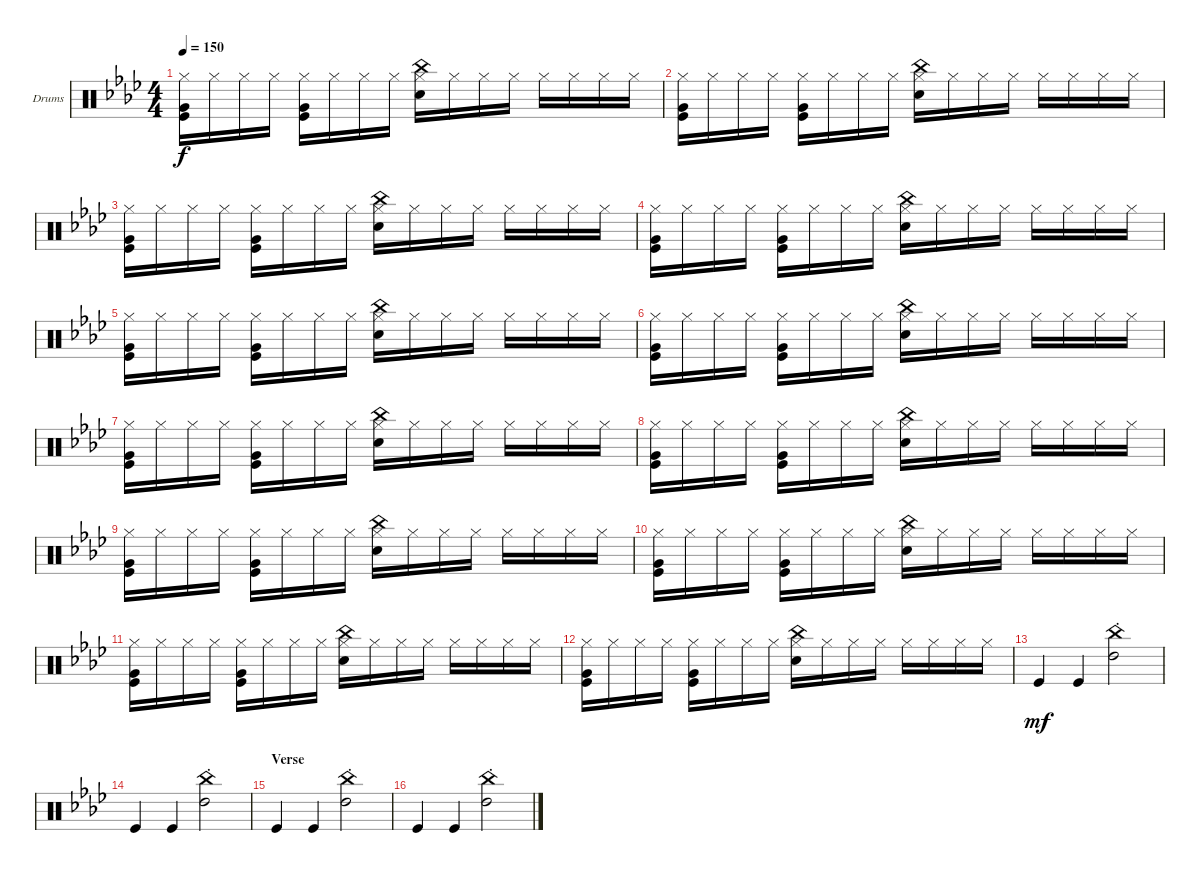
\bracketExtendMode groupsimilarinstruments
\firstSystemTrackNameOrientation horizontal
\otherSystemsTrackNameOrientation horizontal
\track ("Drums" "Drums") {instrument percussion}
\staff {score}
\articulation defaults
\ts (4 4)
\tempo 150
\clef neutral
\ks ab
("Kick (hit)" "Very Low Tom (hit)" "Hi-Hat (closed)").16{dy f} "Hi-Hat (closed)".16 "Hi-Hat (closed)".16 "Hi-Hat (closed)".16 ("Kick (hit)" "Very Low Tom (hit)" "Hi-Hat (closed)").16 "Hi-Hat (closed)".16 "Hi-Hat (closed)".16 "Hi-Hat (closed)".16 ("Hi-Hat (closed)" "Snare (hit) 2" "China (hit)").16 "Hi-Hat (closed)".16 "Hi-Hat (closed)".16 "Hi-Hat (closed)".16 "Hi-Hat (closed)".16 "Hi-Hat (closed)".16 "Hi-Hat (closed)".16 "Hi-Hat (closed)".16 |
("Kick (hit)" "Very Low Tom (hit)" "Hi-Hat (closed)").16 "Hi-Hat (closed)".16 "Hi-Hat (closed)".16 "Hi-Hat (closed)".16 ("Kick (hit)" "Very Low Tom (hit)" "Hi-Hat (closed)").16 "Hi-Hat (closed)".16 "Hi-Hat (closed)".16 "Hi-Hat (closed)".16 ("Hi-Hat (closed)" "Snare (hit) 2" "China (hit)").16 "Hi-Hat (closed)".16 "Hi-Hat (closed)".16 "Hi-Hat (closed)".16 "Hi-Hat (closed)".16 "Hi-Hat (closed)".16 "Hi-Hat (closed)".16 "Hi-Hat (closed)".16 |
("Kick (hit)" "Very Low Tom (hit)" "Hi-Hat (closed)").16 "Hi-Hat (closed)".16 "Hi-Hat (closed)".16 "Hi-Hat (closed)".16 ("Kick (hit)" "Very Low Tom (hit)" "Hi-Hat (closed)").16 "Hi-Hat (closed)".16 "Hi-Hat (closed)".16 "Hi-Hat (closed)".16 ("Hi-Hat (closed)" "Snare (hit) 2" "China (hit)").16 "Hi-Hat (closed)".16 "Hi-Hat (closed)".16 "Hi-Hat (closed)".16 "Hi-Hat (closed)".16 "Hi-Hat (closed)".16 "Hi-Hat (closed)".16 "Hi-Hat (closed)".16 |
("Kick (hit)" "Very Low Tom (hit)" "Hi-Hat (closed)").16 "Hi-Hat (closed)".16 "Hi-Hat (closed)".16 "Hi-Hat (closed)".16 ("Kick (hit)" "Very Low Tom (hit)" "Hi-Hat (closed)").16 "Hi-Hat (closed)".16 "Hi-Hat (closed)".16 "Hi-Hat (closed)".16 ("Hi-Hat (closed)" "Snare (hit) 2" "China (hit)").16 "Hi-Hat (closed)".16 "Hi-Hat (closed)".16 "Hi-Hat (closed)".16 "Hi-Hat (closed)".16 "Hi-Hat (closed)".16 "Hi-Hat (closed)".16 "Hi-Hat (closed)".16 |
("Kick (hit)" "Very Low Tom (hit)" "Hi-Hat (closed)").16 "Hi-Hat (closed)".16 "Hi-Hat (closed)".16 "Hi-Hat (closed)".16 ("Kick (hit)" "Very Low Tom (hit)" "Hi-Hat (closed)").16 "Hi-Hat (closed)".16 "Hi-Hat (closed)".16 "Hi-Hat (closed)".16 ("Hi-Hat (closed)" "Snare (hit) 2" "China (hit)").16 "Hi-Hat (closed)".16 "Hi-Hat (closed)".16 "Hi-Hat (closed)".16 "Hi-Hat (closed)".16 "Hi-Hat (closed)".16 "Hi-Hat (closed)".16 "Hi-Hat (closed)".16 |
("Kick (hit)" "Very Low Tom (hit)" "Hi-Hat (closed)").16 "Hi-Hat (closed)".16 "Hi-Hat (closed)".16 "Hi-Hat (closed)".16 ("Kick (hit)" "Very Low Tom (hit)" "Hi-Hat (closed)").16 "Hi-Hat (closed)".16 "Hi-Hat (closed)".16 "Hi-Hat (closed)".16 ("Hi-Hat (closed)" "Snare (hit) 2" "China (hit)").16 "Hi-Hat (closed)".16 "Hi-Hat (closed)".16 "Hi-Hat (closed)".16 "Hi-Hat (closed)".16 "Hi-Hat (closed)".16 "Hi-Hat (closed)".16 "Hi-Hat (closed)".16 |
("Kick (hit)" "Very Low Tom (hit)" "Hi-Hat (closed)").16 "Hi-Hat (closed)".16 "Hi-Hat (closed)".16 "Hi-Hat (closed)".16 ("Kick (hit)" "Very Low Tom (hit)" "Hi-Hat (closed)").16 "Hi-Hat (closed)".16 "Hi-Hat (closed)".16 "Hi-Hat (closed)".16 ("Hi-Hat (closed)" "Snare (hit) 2" "China (hit)").16 "Hi-Hat (closed)".16 "Hi-Hat (closed)".16 "Hi-Hat (closed)".16 "Hi-Hat (closed)".16 "Hi-Hat (closed)".16 "Hi-Hat (closed)".16 "Hi-Hat (closed)".16 |
("Kick (hit)" "Very Low Tom (hit)" "Hi-Hat (closed)").16 "Hi-Hat (closed)".16 "Hi-Hat (closed)".16 "Hi-Hat (closed)".16 ("Kick (hit)" "Very Low Tom (hit)" "Hi-Hat (closed)").16 "Hi-Hat (closed)".16 "Hi-Hat (closed)".16 "Hi-Hat (closed)".16 ("Hi-Hat (closed)" "Snare (hit) 2" "China (hit)").16 "Hi-Hat (closed)".16 "Hi-Hat (closed)".16 "Hi-Hat (closed)".16 "Hi-Hat (closed)".16 "Hi-Hat (closed)".16 "Hi-Hat (closed)".16 "Hi-Hat (closed)".16 |
("Kick (hit)" "Very Low Tom (hit)" "Hi-Hat (closed)").16 "Hi-Hat (closed)".16 "Hi-Hat (closed)".16 "Hi-Hat (closed)".16 ("Kick (hit)" "Very Low Tom (hit)" "Hi-Hat (closed)").16 "Hi-Hat (closed)".16 "Hi-Hat (closed)".16 "Hi-Hat (closed)".16 ("Hi-Hat (closed)" "Snare (hit) 2" "China (hit)").16 "Hi-Hat (closed)".16 "Hi-Hat (closed)".16 "Hi-Hat (closed)".16 "Hi-Hat (closed)".16 "Hi-Hat (closed)".16 "Hi-Hat (closed)".16 "Hi-Hat (closed)".16 |
("Kick (hit)" "Very Low Tom (hit)" "Hi-Hat (closed)").16 "Hi-Hat (closed)".16 "Hi-Hat (closed)".16 "Hi-Hat (closed)".16 ("Kick (hit)" "Very Low Tom (hit)" "Hi-Hat (closed)").16 "Hi-Hat (closed)".16 "Hi-Hat (closed)".16 "Hi-Hat (closed)".16 ("Hi-Hat (closed)" "Snare (hit) 2" "China (hit)").16 "Hi-Hat (closed)".16 "Hi-Hat (closed)".16 "Hi-Hat (closed)".16 "Hi-Hat (closed)".16 "Hi-Hat (closed)".16 "Hi-Hat (closed)".16 "Hi-Hat (closed)".16 |
("Kick (hit)" "Very Low Tom (hit)" "Hi-Hat (closed)").16 "Hi-Hat (closed)".16 "Hi-Hat (closed)".16 "Hi-Hat (closed)".16 ("Kick (hit)" "Very Low Tom (hit)" "Hi-Hat (closed)").16 "Hi-Hat (closed)".16 "Hi-Hat (closed)".16 "Hi-Hat (closed)".16 ("Hi-Hat (closed)" "Snare (hit) 2" "China (hit)").16 "Hi-Hat (closed)".16 "Hi-Hat (closed)".16 "Hi-Hat (closed)".16 "Hi-Hat (closed)".16 "Hi-Hat (closed)".16 "Hi-Hat (closed)".16 "Hi-Hat (closed)".16 |
("Kick (hit)" "Very Low Tom (hit)" "Hi-Hat (closed)").16 "Hi-Hat (closed)".16 "Hi-Hat (closed)".16 "Hi-Hat (closed)".16 ("Kick (hit)" "Very Low Tom (hit)" "Hi-Hat (closed)").16 "Hi-Hat (closed)".16 "Hi-Hat (closed)".16 "Hi-Hat (closed)".16 ("Hi-Hat (closed)" "Snare (hit) 2" "China (hit)").16 "Hi-Hat (closed)".16 "Hi-Hat (closed)".16 "Hi-Hat (closed)".16 "Hi-Hat (closed)".16 "Hi-Hat (closed)".16 "Hi-Hat (closed)".16 "Hi-Hat (closed)".16 |
"Kick (hit)".4{dy mf} "Kick (hit)".4 ("High Tom (hit)" "China (hit)"{st}).2 |
"Kick (hit)".4 "Kick (hit)".4 ("High Tom (hit)" "China (hit)"{st}).2 |
\section ("" "Verse")
"Kick (hit)".4 "Kick (hit)".4 ("High Tom (hit)" "China (hit)"{st}).2 |
"Kick (hit)".4 "Kick (hit)".4 ("High Tom (hit)" "China (hit)"{st}).2
